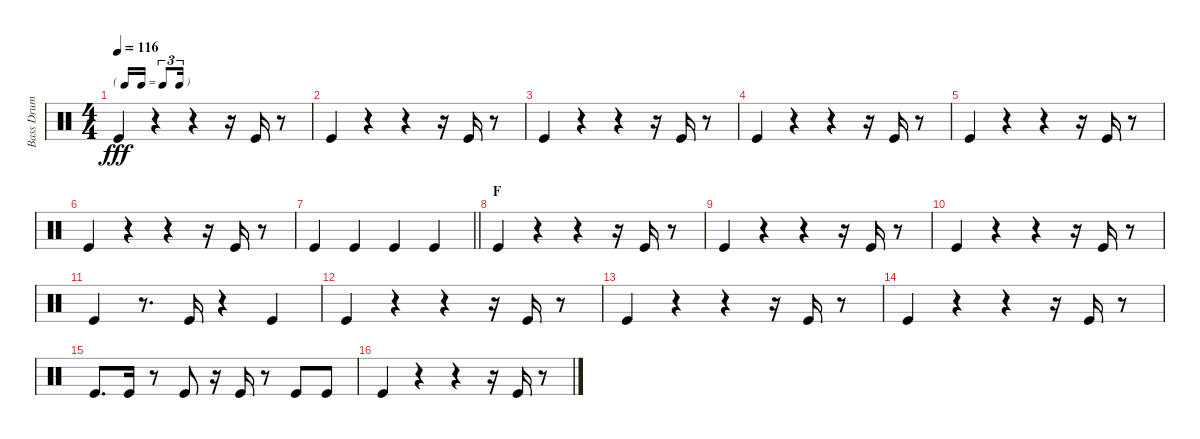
\track ("Bass Drum" "Bass Drum") {instrument percussion}
\staff {score}
\articulation defaults
\ts (4 4)
\tf triplet16th
\tempo 116
\clef neutral
\ks c "Kick (hit)".4{dy fff}
r.4 r.4 r.16 "Kick (hit)".16 r.8 |
"Kick (hit)".4 r.4 r.4 r.16 "Kick (hit)".16 r.8 |
"Kick (hit)".4 r.4 r.4 r.16 "Kick (hit)".16 r.8 |
"Kick (hit)".4 r.4 r.4 r.16 "Kick (hit)".16 r.8 |
"Kick (hit)".4 r.4 r.4 r.16 "Kick (hit)".16 r.8 |
"Kick (hit)".4 r.4 r.4 r.16 "Kick (hit)".16 r.8 |
\barLineRight lightlight "Kick (hit)".4 "Kick (hit)".4 "Kick (hit)".4 "Kick (hit)".4
|
\section ("" "F")
"Kick (hit)".4 r.4 r.4 r.16 "Kick (hit)".16 r.8 |
"Kick (hit)".4 r.4 r.4 r.16 "Kick (hit)".16 r.8 |
"Kick (hit)".4 r.4 r.4 r.16 "Kick (hit)".16 r.8 |
"Kick (hit)".4 r.8{d} "Kick (hit)".16 r.4 "Kick (hit)".4 |
"Kick (hit)".4 r.4 r.4 r.16 "Kick (hit)".16 r.8 |
"Kick (hit)".4 r.4 r.4 r.16 "Kick (hit)".16 r.8 |
"Kick (hit)".4 r.4 r.4 r.16 "Kick (hit)".16 r.8 |
"Kick (hit)".8{d} "Kick (hit)".16 r.8 "Kick (hit)".8 r.16 "Kick (hit)".16 r.8 "Kick (hit)".8 "Kick (hit)".8 |
"Kick (hit)".4 r.4 r.4 r.16 "Kick (hit)".16 r.8
